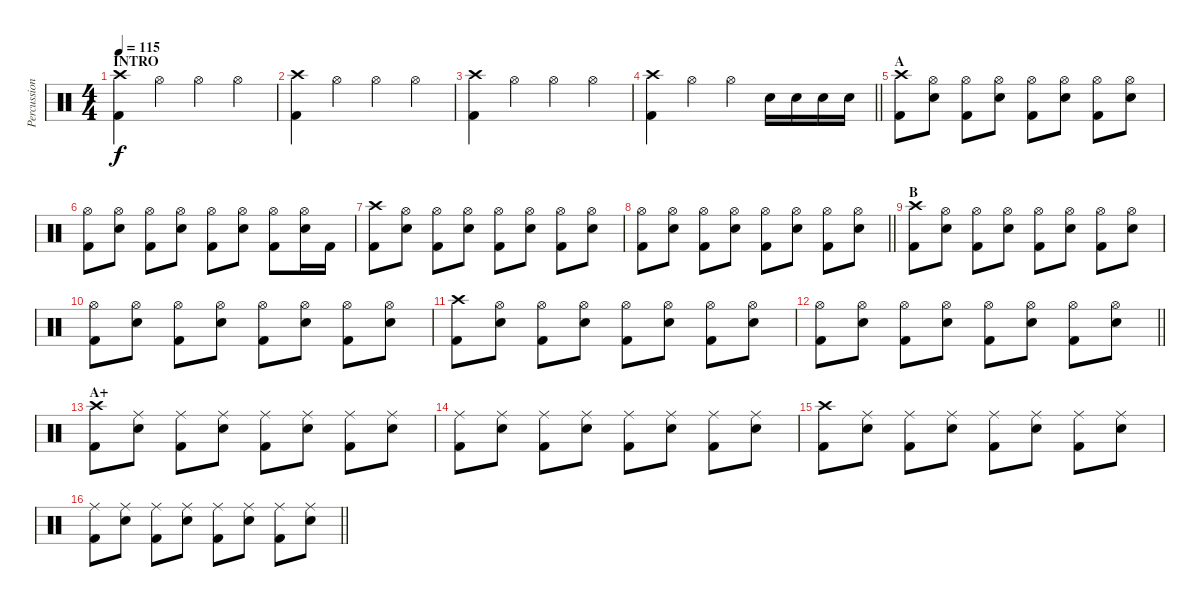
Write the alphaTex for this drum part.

\track ("Percussion" "Percussion") {instrument percussion}
\staff {score}
\articulation defaults
\ts (4 4)
\section ("" "INTRO")
\tempo 115
\clef neutral
\ks c
("Crash high (hit)" "Kick (hit) 2").4{dy f} "Hi-Hat (open)".4 "Hi-Hat (open)".4 "Hi-Hat (open)".4 |
("Crash high (hit)" "Kick (hit) 2").4 "Hi-Hat (open)".4 "Hi-Hat (open)".4 "Hi-Hat (open)".4 |
("Crash high (hit)" "Kick (hit) 2").4 "Hi-Hat (open)".4 "Hi-Hat (open)".4 "Hi-Hat (open)".4 |
\barLineRight lightlight
("Crash high (hit)" "Kick (hit) 2").4 "Hi-Hat (open)".4 "Hi-Hat (open)".4 "Snare (hit) 2".16 "Snare (hit) 2".16 "Snare (hit) 2".16 "Snare (hit) 2".16 |
\section ("" "A")
("Crash high (hit)" "Kick (hit) 2").8 ("Hi-Hat (open)" "Snare (hit) 2").8 ("Hi-Hat (open)" "Kick (hit) 2").8 ("Hi-Hat (open)" "Snare (hit) 2").8 ("Hi-Hat (open)" "Kick (hit) 2").8 ("Hi-Hat (open)" "Snare (hit) 2").8 ("Hi-Hat (open)" "Kick (hit) 2").8 ("Hi-Hat (open)" "Snare (hit) 2").8 |
("Hi-Hat (open)" "Kick (hit) 2").8 ("Hi-Hat (open)" "Snare (hit) 2").8 ("Hi-Hat (open)" "Kick (hit) 2").8 ("Hi-Hat (open)" "Snare (hit) 2").8 ("Hi-Hat (open)" "Kick (hit) 2").8 ("Hi-Hat (open)" "Snare (hit) 2").8 ("Hi-Hat (open)" "Kick (hit) 2").8 ("Hi-Hat (open)" "Snare (hit) 2").16 "Kick (hit) 2".16 |
("Crash high (hit)" "Kick (hit) 2").8 ("Hi-Hat (open)" "Snare (hit) 2").8 ("Hi-Hat (open)" "Kick (hit) 2").8 ("Hi-Hat (open)" "Snare (hit) 2").8 ("Hi-Hat (open)" "Kick (hit) 2").8 ("Hi-Hat (open)" "Snare (hit) 2").8 ("Hi-Hat (open)" "Kick (hit) 2").8 ("Hi-Hat (open)" "Snare (hit) 2").8 |
\barLineRight lightlight
("Hi-Hat (open)" "Kick (hit) 2").8 ("Hi-Hat (open)" "Snare (hit) 2").8 ("Hi-Hat (open)" "Kick (hit) 2").8 ("Hi-Hat (open)" "Snare (hit) 2").8 ("Hi-Hat (open)" "Kick (hit) 2").8 ("Hi-Hat (open)" "Snare (hit) 2").8 ("Hi-Hat (open)" "Kick (hit) 2").8 ("Hi-Hat (open)" "Snare (hit) 2").8 |
\section ("" "B")
("Crash high (hit)" "Kick (hit) 2").8 ("Hi-Hat (open)" "Snare (hit) 2").8 ("Hi-Hat (open)" "Kick (hit) 2").8 ("Hi-Hat (open)" "Snare (hit) 2").8 ("Hi-Hat (open)" "Kick (hit) 2").8 ("Hi-Hat (open)" "Snare (hit) 2").8 ("Hi-Hat (open)" "Kick (hit) 2").8 ("Hi-Hat (open)" "Snare (hit) 2").8 |
("Hi-Hat (open)" "Kick (hit) 2").8 ("Hi-Hat (open)" "Snare (hit) 2").8 ("Hi-Hat (open)" "Kick (hit) 2").8 ("Hi-Hat (open)" "Snare (hit) 2").8 ("Hi-Hat (open)" "Kick (hit) 2").8 ("Hi-Hat (open)" "Snare (hit) 2").8 ("Hi-Hat (open)" "Kick (hit) 2").8 ("Hi-Hat (open)" "Snare (hit) 2").8 |
("Crash high (hit)" "Kick (hit) 2").8 ("Hi-Hat (open)" "Snare (hit) 2").8 ("Hi-Hat (open)" "Kick (hit) 2").8 ("Hi-Hat (open)" "Snare (hit) 2").8 ("Hi-Hat (open)" "Kick (hit) 2").8 ("Hi-Hat (open)" "Snare (hit) 2").8 ("Hi-Hat (open)" "Kick (hit) 2").8 ("Hi-Hat (open)" "Snare (hit) 2").8 |
\barLineRight lightlight
("Hi-Hat (open)" "Kick (hit) 2").8 ("Hi-Hat (open)" "Snare (hit) 2").8 ("Hi-Hat (open)" "Kick (hit) 2").8 ("Hi-Hat (open)" "Snare (hit) 2").8 ("Hi-Hat (open)" "Kick (hit) 2").8 ("Hi-Hat (open)" "Snare (hit) 2").8 ("Hi-Hat (open)" "Kick (hit) 2").8 ("Hi-Hat (open)" "Snare (hit) 2").8 |
\section ("" "A+")
("Crash high (hit)" "Kick (hit) 2").8 ("Ride (middle)" "Snare (hit) 2").8 ("Ride (middle)" "Kick (hit) 2").8 ("Ride (middle)" "Snare (hit) 2").8 ("Ride (middle)" "Kick (hit) 2").8 ("Ride (middle)" "Snare (hit) 2").8 ("Ride (middle)" "Kick (hit) 2").8 ("Ride (middle)" "Snare (hit) 2").8 |
("Ride (middle)" "Kick (hit) 2").8 ("Ride (middle)" "Snare (hit) 2").8 ("Ride (middle)" "Kick (hit) 2").8 ("Ride (middle)" "Snare (hit) 2").8 ("Ride (middle)" "Kick (hit) 2").8 ("Ride (middle)" "Snare (hit) 2").8 ("Ride (middle)" "Kick (hit) 2").8 ("Ride (middle)" "Snare (hit) 2").8 |
("Crash high (hit)" "Kick (hit) 2").8 ("Ride (middle)" "Snare (hit) 2").8 ("Ride (middle)" "Kick (hit) 2").8 ("Ride (middle)" "Snare (hit) 2").8 ("Ride (middle)" "Kick (hit) 2").8 ("Ride (middle)" "Snare (hit) 2").8 ("Ride (middle)" "Kick (hit) 2").8 ("Ride (middle)" "Snare (hit) 2").8 |
\barLineRight lightlight
("Ride (middle)" "Kick (hit) 2").8 ("Ride (middle)" "Snare (hit) 2").8 ("Ride (middle)" "Kick (hit) 2").8 ("Ride (middle)" "Snare (hit) 2").8 ("Ride (middle)" "Kick (hit) 2").8 ("Ride (middle)" "Snare (hit) 2").8 ("Ride (middle)" "Kick (hit) 2").8 ("Ride (middle)" "Snare (hit) 2").8
